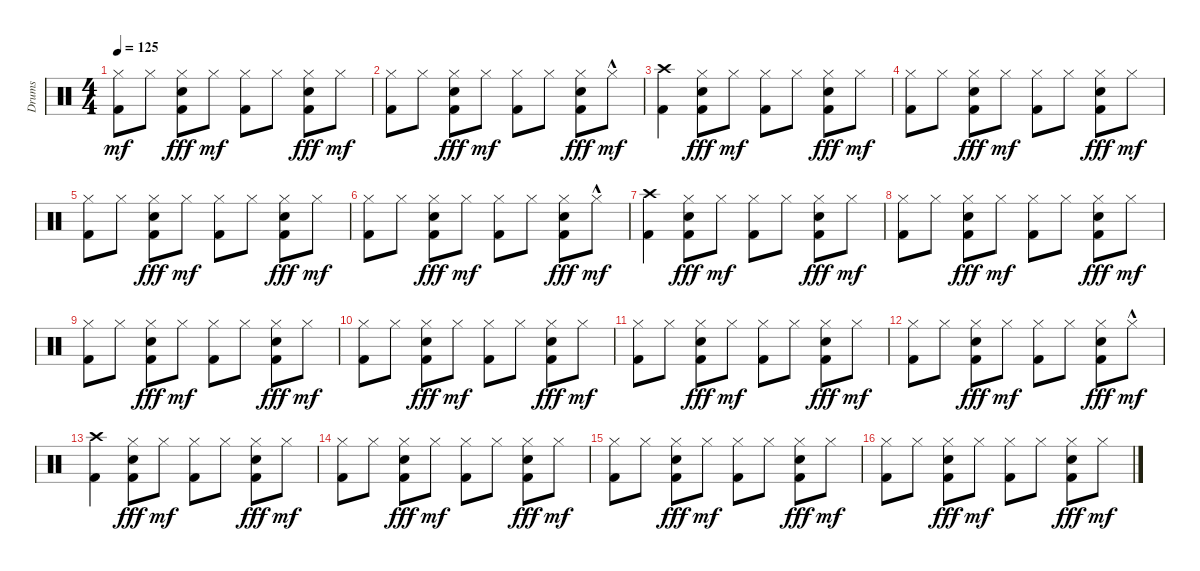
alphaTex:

\track ("Drums" "Drums") {instrument percussion}
\staff {score}
\articulation defaults
\ts (4 4)
\tempo 125
\clef neutral
\ks c
("Kick (hit) 2" "Hi-Hat (closed)").8{dy mf} "Hi-Hat (closed)".8 ("Snare (hit) 2" "Kick (hit) 2" "Hi-Hat (closed)").8{dy fff} "Hi-Hat (closed)".8{dy mf} ("Kick (hit) 2" "Hi-Hat (closed)").8 "Hi-Hat (closed)".8 ("Snare (hit) 2" "Kick (hit) 2" "Hi-Hat (closed)").8{dy fff} "Hi-Hat (closed)".8{dy mf} |
("Kick (hit) 2" "Hi-Hat (closed)").8 "Hi-Hat (closed)".8 ("Snare (hit) 2" "Kick (hit) 2" "Hi-Hat (closed)").8{dy fff} "Hi-Hat (closed)".8{dy mf} ("Kick (hit) 2" "Hi-Hat (closed)").8 "Hi-Hat (closed)".8 ("Snare (hit) 2" "Kick (hit) 2" "Hi-Hat (closed)").8{dy fff} "Hi-Hat (closed)"{hac}.8{dy mf} |
("Kick (hit) 2" "Crash high (hit)").4 ("Snare (hit) 2" "Kick (hit) 2" "Hi-Hat (closed)").8{dy fff} "Hi-Hat (closed)".8{dy mf} ("Kick (hit) 2" "Hi-Hat (closed)").8 "Hi-Hat (closed)".8 ("Snare (hit) 2" "Kick (hit) 2" "Hi-Hat (closed)").8{dy fff} "Hi-Hat (closed)".8{dy mf} |
("Kick (hit) 2" "Hi-Hat (closed)").8 "Hi-Hat (closed)".8 ("Snare (hit) 2" "Kick (hit) 2" "Hi-Hat (closed)").8{dy fff} "Hi-Hat (closed)".8{dy mf} ("Kick (hit) 2" "Hi-Hat (closed)").8 "Hi-Hat (closed)".8 ("Snare (hit) 2" "Kick (hit) 2" "Hi-Hat (closed)").8{dy fff} "Hi-Hat (closed)".8{dy mf} |
("Kick (hit) 2" "Hi-Hat (closed)").8 "Hi-Hat (closed)".8 ("Snare (hit) 2" "Kick (hit) 2" "Hi-Hat (closed)").8{dy fff} "Hi-Hat (closed)".8{dy mf} ("Kick (hit) 2" "Hi-Hat (closed)").8 "Hi-Hat (closed)".8 ("Snare (hit) 2" "Kick (hit) 2" "Hi-Hat (closed)").8{dy fff} "Hi-Hat (closed)".8{dy mf} |
("Kick (hit) 2" "Hi-Hat (closed)").8 "Hi-Hat (closed)".8 ("Snare (hit) 2" "Kick (hit) 2" "Hi-Hat (closed)").8{dy fff} "Hi-Hat (closed)".8{dy mf} ("Kick (hit) 2" "Hi-Hat (closed)").8 "Hi-Hat (closed)".8 ("Snare (hit) 2" "Kick (hit) 2" "Hi-Hat (closed)").8{dy fff} "Hi-Hat (closed)"{hac}.8{dy mf} |
("Kick (hit) 2" "Crash high (hit)").4 ("Snare (hit) 2" "Kick (hit) 2" "Hi-Hat (closed)").8{dy fff} "Hi-Hat (closed)".8{dy mf} ("Kick (hit) 2" "Hi-Hat (closed)").8 "Hi-Hat (closed)".8 ("Snare (hit) 2" "Kick (hit) 2" "Hi-Hat (closed)").8{dy fff} "Hi-Hat (closed)".8{dy mf} |
("Kick (hit) 2" "Hi-Hat (closed)").8 "Hi-Hat (closed)".8 ("Snare (hit) 2" "Kick (hit) 2" "Hi-Hat (closed)").8{dy fff} "Hi-Hat (closed)".8{dy mf} ("Kick (hit) 2" "Hi-Hat (closed)").8 "Hi-Hat (closed)".8 ("Snare (hit) 2" "Kick (hit) 2" "Hi-Hat (closed)").8{dy fff} "Hi-Hat (closed)".8{dy mf} |
("Kick (hit) 2" "Hi-Hat (closed)").8 "Hi-Hat (closed)".8 ("Snare (hit) 2" "Kick (hit) 2" "Hi-Hat (closed)").8{dy fff} "Hi-Hat (closed)".8{dy mf} ("Kick (hit) 2" "Hi-Hat (closed)").8 "Hi-Hat (closed)".8 ("Snare (hit) 2" "Kick (hit) 2" "Hi-Hat (closed)").8{dy fff} "Hi-Hat (closed)".8{dy mf} |
("Kick (hit) 2" "Hi-Hat (closed)").8 "Hi-Hat (closed)".8 ("Snare (hit) 2" "Kick (hit) 2" "Hi-Hat (closed)").8{dy fff} "Hi-Hat (closed)".8{dy mf} ("Kick (hit) 2" "Hi-Hat (closed)").8 "Hi-Hat (closed)".8 ("Snare (hit) 2" "Kick (hit) 2" "Hi-Hat (closed)").8{dy fff} "Hi-Hat (closed)".8{dy mf} |
("Kick (hit) 2" "Hi-Hat (closed)").8 "Hi-Hat (closed)".8 ("Snare (hit) 2" "Kick (hit) 2" "Hi-Hat (closed)").8{dy fff} "Hi-Hat (closed)".8{dy mf} ("Kick (hit) 2" "Hi-Hat (closed)").8 "Hi-Hat (closed)".8 ("Snare (hit) 2" "Kick (hit) 2" "Hi-Hat (closed)").8{dy fff} "Hi-Hat (closed)".8{dy mf} |
("Kick (hit) 2" "Hi-Hat (closed)").8 "Hi-Hat (closed)".8 ("Snare (hit) 2" "Kick (hit) 2" "Hi-Hat (closed)").8{dy fff} "Hi-Hat (closed)".8{dy mf} ("Kick (hit) 2" "Hi-Hat (closed)").8 "Hi-Hat (closed)".8 ("Snare (hit) 2" "Kick (hit) 2" "Hi-Hat (closed)").8{dy fff} "Hi-Hat (closed)"{hac}.8{dy mf} |
("Kick (hit) 2" "Crash high (hit)").4 ("Snare (hit) 2" "Kick (hit) 2" "Hi-Hat (closed)").8{dy fff} "Hi-Hat (closed)".8{dy mf} ("Kick (hit) 2" "Hi-Hat (closed)").8 "Hi-Hat (closed)".8 ("Snare (hit) 2" "Kick (hit) 2" "Hi-Hat (closed)").8{dy fff} "Hi-Hat (closed)".8{dy mf} |
("Kick (hit) 2" "Hi-Hat (closed)").8 "Hi-Hat (closed)".8 ("Snare (hit) 2" "Kick (hit) 2" "Hi-Hat (closed)").8{dy fff} "Hi-Hat (closed)".8{dy mf} ("Kick (hit) 2" "Hi-Hat (closed)").8 "Hi-Hat (closed)".8 ("Snare (hit) 2" "Kick (hit) 2" "Hi-Hat (closed)").8{dy fff} "Hi-Hat (closed)".8{dy mf} |
("Kick (hit) 2" "Hi-Hat (closed)").8 "Hi-Hat (closed)".8 ("Snare (hit) 2" "Kick (hit) 2" "Hi-Hat (closed)").8{dy fff} "Hi-Hat (closed)".8{dy mf} ("Kick (hit) 2" "Hi-Hat (closed)").8 "Hi-Hat (closed)".8 ("Snare (hit) 2" "Kick (hit) 2" "Hi-Hat (closed)").8{dy fff} "Hi-Hat (closed)".8{dy mf} |
("Kick (hit) 2" "Hi-Hat (closed)").8 "Hi-Hat (closed)".8 ("Snare (hit) 2" "Kick (hit) 2" "Hi-Hat (closed)").8{dy fff} "Hi-Hat (closed)".8{dy mf} ("Kick (hit) 2" "Hi-Hat (closed)").8 "Hi-Hat (closed)".8 ("Snare (hit) 2" "Kick (hit) 2" "Hi-Hat (closed)").8{dy fff} "Hi-Hat (closed)".8{dy mf}
